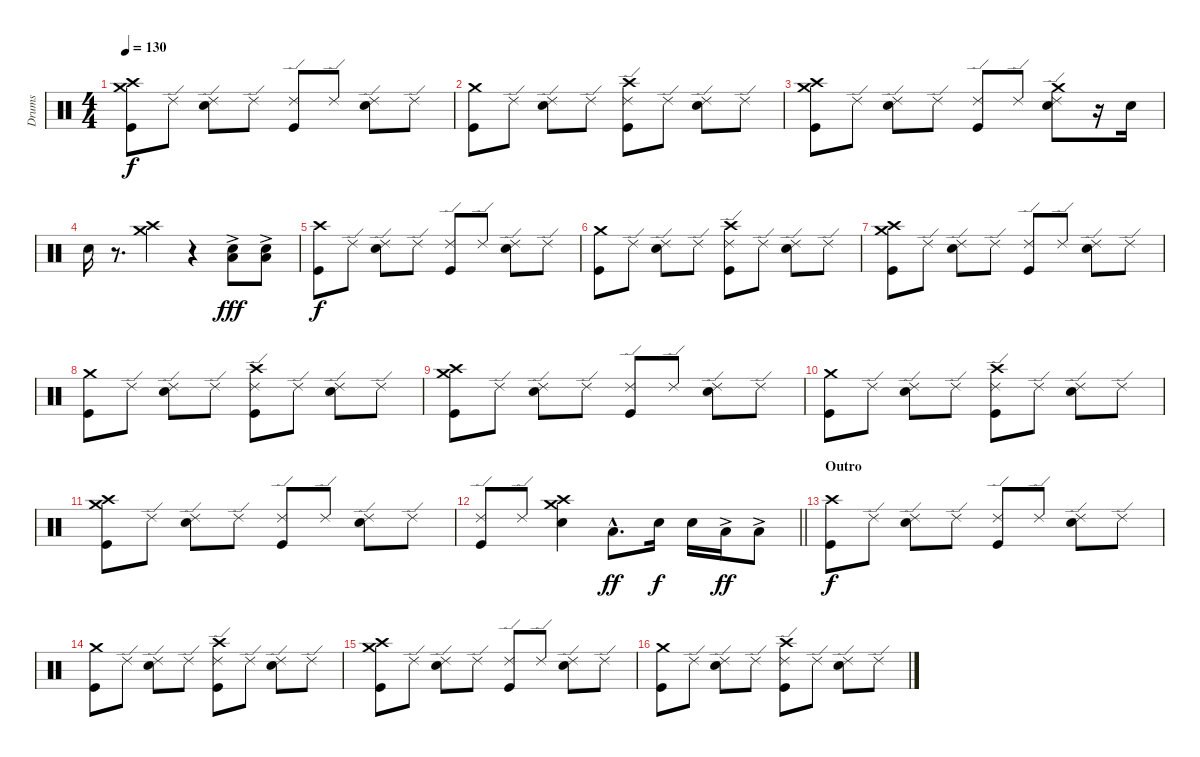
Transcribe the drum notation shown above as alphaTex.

\track ("Drums" "Drums") {instrument percussion}
\staff {score}
\articulation defaults
\ts (4 4)
\tempo 130
\clef neutral
\ks c
("Crash high (hit)" "Crash medium (hit)" "Kick (hit)").8{dy f} "Ride (edge) 2".8 ("Ride (edge) 2" "Snare (hit) 2").8 "Ride (edge) 2".8 ("Ride (edge) 2" "Kick (hit)").8 "Ride (edge) 2".8 ("Ride (edge) 2" "Snare (hit) 2").8 "Ride (edge) 2".8 |
("Crash medium (hit)" "Kick (hit)").8 "Ride (edge) 2".8 ("Ride (edge) 2" "Snare (hit) 2").8 "Ride (edge) 2".8 ("Crash high (hit)" "Ride (edge) 2" "Kick (hit)").8 "Ride (edge) 2".8 ("Ride (edge) 2" "Snare (hit) 2").8 "Ride (edge) 2".8 |
("Crash high (hit)" "Crash medium (hit)" "Kick (hit)").8 "Ride (edge) 2".8 ("Ride (edge) 2" "Snare (hit) 2").8 "Ride (edge) 2".8 ("Ride (edge) 2" "Kick (hit)").8 "Ride (edge) 2".8 ("Crash medium (hit)" "Ride (edge) 2" "Snare (hit) 2").8 r.16 "Snare (hit) 2".16 |
"Snare (hit) 2".16 r.8{d} ("Crash high (hit)" "Crash medium (hit)").4 r.4 ("Low Floor Tom (hit)"{ac} "Snare (hit) 2").8{dy fff} ("Low Floor Tom (hit)"{ac} "Snare (hit) 2").8 |
("Crash high (hit)" "Kick (hit)").8{dy f} "Ride (edge) 2".8 ("Ride (edge) 2" "Snare (hit) 2").8 "Ride (edge) 2".8 ("Ride (edge) 2" "Kick (hit)").8 "Ride (edge) 2".8 ("Ride (edge) 2" "Snare (hit) 2").8 "Ride (edge) 2".8 |
("Crash medium (hit)" "Kick (hit)").8 "Ride (edge) 2".8 ("Ride (edge) 2" "Snare (hit) 2").8 "Ride (edge) 2".8 ("Crash high (hit)" "Ride (edge) 2" "Kick (hit)").8 "Ride (edge) 2".8 ("Ride (edge) 2" "Snare (hit) 2").8 "Ride (edge) 2".8 |
("Crash high (hit)" "Crash medium (hit)" "Kick (hit)").8 "Ride (edge) 2".8 ("Ride (edge) 2" "Snare (hit) 2").8 "Ride (edge) 2".8 ("Ride (edge) 2" "Kick (hit)").8 "Ride (edge) 2".8 ("Ride (edge) 2" "Snare (hit) 2").8 "Ride (edge) 2".8 |
("Crash medium (hit)" "Kick (hit)").8 "Ride (edge) 2".8 ("Ride (edge) 2" "Snare (hit) 2").8 "Ride (edge) 2".8 ("Crash high (hit)" "Ride (edge) 2" "Kick (hit)").8 "Ride (edge) 2".8 ("Ride (edge) 2" "Snare (hit) 2").8 "Ride (edge) 2".8 |
("Crash high (hit)" "Crash medium (hit)" "Kick (hit)").8 "Ride (edge) 2".8 ("Ride (edge) 2" "Snare (hit) 2").8 "Ride (edge) 2".8 ("Ride (edge) 2" "Kick (hit)").8 "Ride (edge) 2".8 ("Ride (edge) 2" "Snare (hit) 2").8 "Ride (edge) 2".8 |
("Crash medium (hit)" "Kick (hit)").8 "Ride (edge) 2".8 ("Ride (edge) 2" "Snare (hit) 2").8 "Ride (edge) 2".8 ("Crash high (hit)" "Ride (edge) 2" "Kick (hit)").8 "Ride (edge) 2".8 ("Ride (edge) 2" "Snare (hit) 2").8 "Ride (edge) 2".8 |
("Crash high (hit)" "Crash medium (hit)" "Kick (hit)").8 "Ride (edge) 2".8 ("Ride (edge) 2" "Snare (hit) 2").8 "Ride (edge) 2".8 ("Ride (edge) 2" "Kick (hit)").8 "Ride (edge) 2".8 ("Ride (edge) 2" "Snare (hit) 2").8 "Ride (edge) 2".8 |
\barLineRight lightlight
("Ride (edge) 2" "Kick (hit)").8 "Ride (edge) 2".8 ("Crash high (hit)" "Crash medium (hit)" "Snare (hit) 2").4 "Low Floor Tom (hit)"{hac}.8{d dy ff} "Snare (hit) 2".16{dy f} "Snare (hit) 2".16 "Low Tom (hit)"{ac}.16{dy ff} "Low Floor Tom (hit)"{ac}.8 |
\section ("" "Outro")
("Crash high (hit)" "Kick (hit)").8{dy f} "Ride (edge) 2".8 ("Ride (edge) 2" "Snare (hit) 2").8 "Ride (edge) 2".8 ("Ride (edge) 2" "Kick (hit)").8 "Ride (edge) 2".8 ("Ride (edge) 2" "Snare (hit) 2").8 "Ride (edge) 2".8 |
("Crash medium (hit)" "Kick (hit)").8 "Ride (edge) 2".8 ("Ride (edge) 2" "Snare (hit) 2").8 "Ride (edge) 2".8 ("Crash high (hit)" "Ride (edge) 2" "Kick (hit)").8 "Ride (edge) 2".8 ("Ride (edge) 2" "Snare (hit) 2").8 "Ride (edge) 2".8 |
("Crash high (hit)" "Crash medium (hit)" "Kick (hit)").8 "Ride (edge) 2".8 ("Ride (edge) 2" "Snare (hit) 2").8 "Ride (edge) 2".8 ("Ride (edge) 2" "Kick (hit)").8 "Ride (edge) 2".8 ("Ride (edge) 2" "Snare (hit) 2").8 "Ride (edge) 2".8 |
("Crash medium (hit)" "Kick (hit)").8 "Ride (edge) 2".8 ("Ride (edge) 2" "Snare (hit) 2").8 "Ride (edge) 2".8 ("Crash high (hit)" "Ride (edge) 2" "Kick (hit)").8 "Ride (edge) 2".8 ("Ride (edge) 2" "Snare (hit) 2").8 "Ride (edge) 2".8
